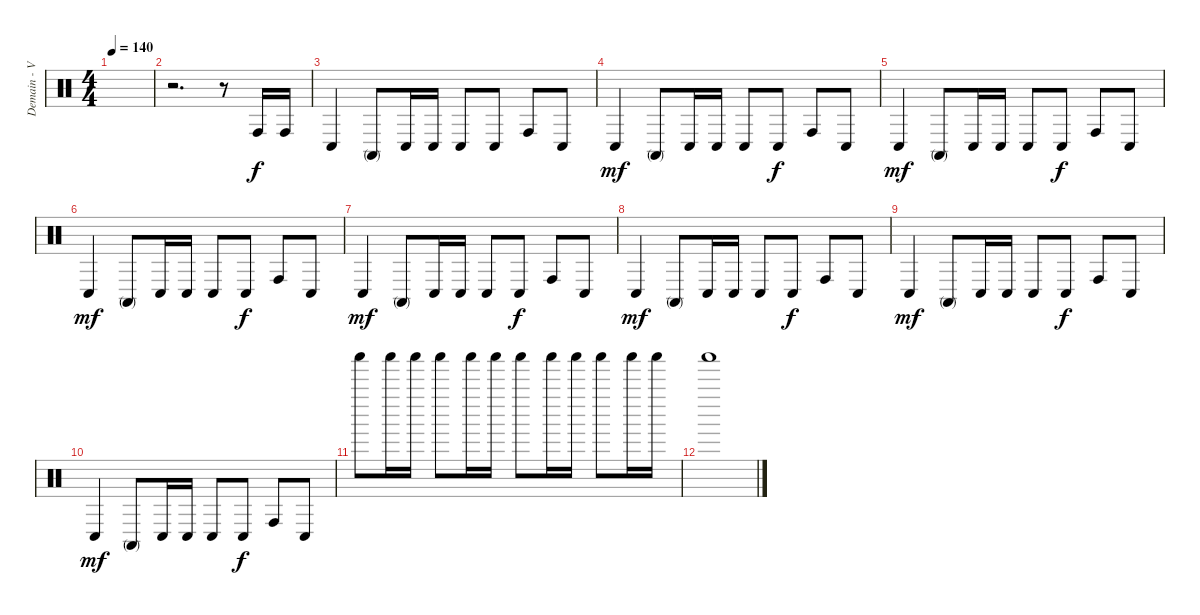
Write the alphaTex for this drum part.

\track ("Demain - Various Perc." "Demain - V") {instrument percussion}
\staff {score}
\articulation defaults
\ts (4 4)
\tempo 140
\clef neutral
\ks c
|
r.2{d} r.8 "Conga high (hit)".16 "Conga high (hit)".16 |
"Conga low (hit)".4 "Conga high (mute)".8 "Conga low (hit)".16 "Conga low (hit)".16 "Conga low (hit)".8 "Conga low (hit)".8{dy f} "Conga high (hit)".8 "Conga low (hit)".8 |
"Conga low (hit)".4{dy mf} "Conga high (mute)".8 "Conga low (hit)".16 "Conga low (hit)".16 "Conga low (hit)".8 "Conga low (hit)".8{dy f} "Conga high (hit)".8 "Conga low (hit)".8 |
"Conga low (hit)".4{dy mf} "Conga high (mute)".8 "Conga low (hit)".16 "Conga low (hit)".16 "Conga low (hit)".8 "Conga low (hit)".8{dy f} "Conga high (hit)".8 "Conga low (hit)".8 |
"Conga low (hit)".4{dy mf} "Conga high (mute)".8 "Conga low (hit)".16 "Conga low (hit)".16 "Conga low (hit)".8 "Conga low (hit)".8{dy f} "Conga high (hit)".8 "Conga low (hit)".8 |
"Conga low (hit)".4{dy mf} "Conga high (mute)".8 "Conga low (hit)".16 "Conga low (hit)".16 "Conga low (hit)".8 "Conga low (hit)".8{dy f} "Conga high (hit)".8 "Conga low (hit)".8 |
"Conga low (hit)".4{dy mf} "Conga high (mute)".8 "Conga low (hit)".16 "Conga low (hit)".16 "Conga low (hit)".8 "Conga low (hit)".8{dy f} "Conga high (hit)".8 "Conga low (hit)".8 |
"Conga low (hit)".4{dy mf} "Conga high (mute)".8 "Conga low (hit)".16 "Conga low (hit)".16 "Conga low (hit)".8 "Conga low (hit)".8{dy f} "Conga high (hit)".8 "Conga low (hit)".8 |
"Conga low (hit)".4{dy mf} "Conga high (mute)".8 "Conga low (hit)".16 "Conga low (hit)".16 "Conga low (hit)".8 "Conga low (hit)".8{dy f} "Conga high (hit)".8 "Conga low (hit)".8 |
"Shaker (hit)".8 "Shaker (hit)".16 "Shaker (hit)".16 "Shaker (hit)".8 "Shaker (hit)".16 "Shaker (hit)".16 "Shaker (hit)".8 "Shaker (hit)".16 "Shaker (hit)".16 "Shaker (hit)".8 "Shaker (hit)".16 "Shaker (hit)".16 |
"Shaker (hit)".1
